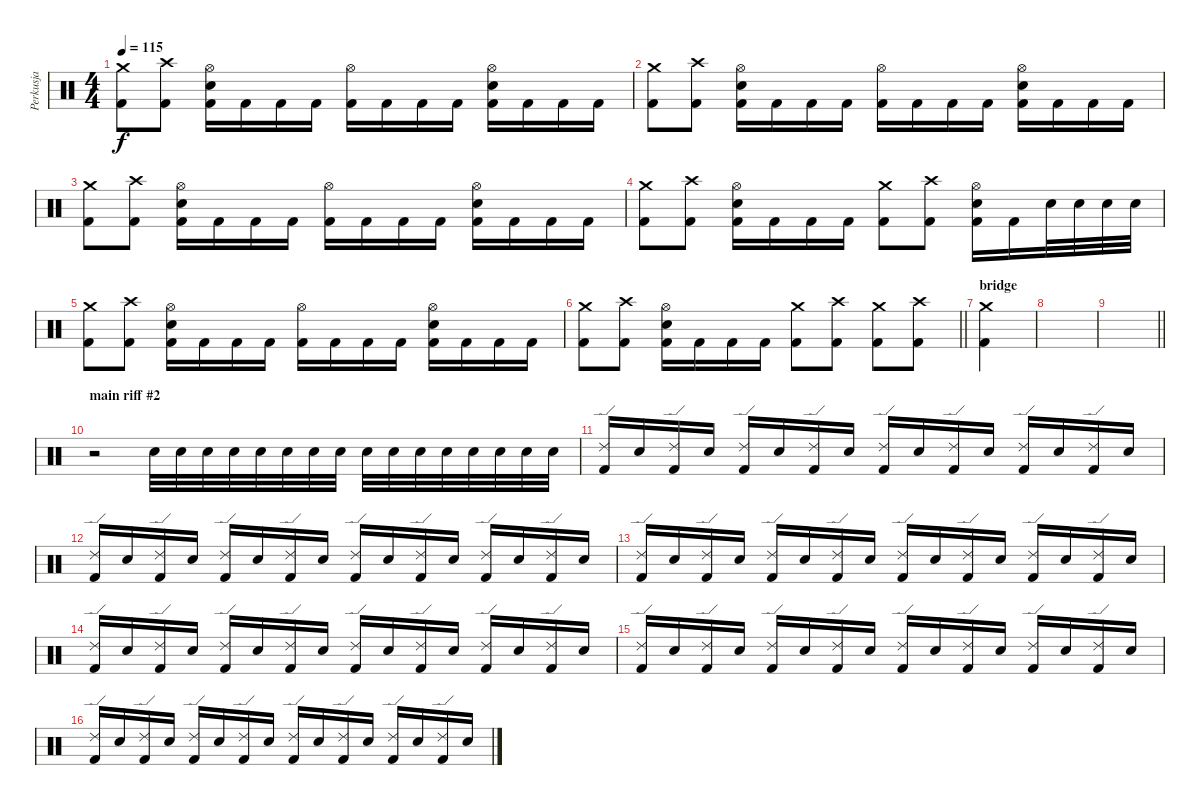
\track ("Perkusja" "Perkusja") {instrument percussion}
\staff {score}
\articulation defaults
\ts (4 4)
\tempo 115
\clef neutral
\ks c
("Crash medium (hit)" "Kick (hit) 2").8{dy f} ("Crash high (hit)" "Kick (hit) 2").8 ("Kick (hit) 2" "Snare (hit) 2" "Hi-Hat (open)").16 "Kick (hit) 2".16 "Kick (hit) 2".16 "Kick (hit) 2".16 ("Kick (hit) 2" "Hi-Hat (open)").16 "Kick (hit) 2".16 "Kick (hit) 2".16 "Kick (hit) 2".16 ("Kick (hit) 2" "Snare (hit) 2" "Hi-Hat (open)").16 "Kick (hit) 2".16 "Kick (hit) 2".16 "Kick (hit) 2".16 |
("Crash medium (hit)" "Kick (hit) 2").8 ("Crash high (hit)" "Kick (hit) 2").8 ("Kick (hit) 2" "Snare (hit) 2" "Hi-Hat (open)").16 "Kick (hit) 2".16 "Kick (hit) 2".16 "Kick (hit) 2".16 ("Kick (hit) 2" "Hi-Hat (open)").16 "Kick (hit) 2".16 "Kick (hit) 2".16 "Kick (hit) 2".16 ("Kick (hit) 2" "Snare (hit) 2" "Hi-Hat (open)").16 "Kick (hit) 2".16 "Kick (hit) 2".16 "Kick (hit) 2".16 |
("Crash medium (hit)" "Kick (hit) 2").8 ("Crash high (hit)" "Kick (hit) 2").8 ("Kick (hit) 2" "Snare (hit) 2" "Hi-Hat (open)").16 "Kick (hit) 2".16 "Kick (hit) 2".16 "Kick (hit) 2".16 ("Kick (hit) 2" "Hi-Hat (open)").16 "Kick (hit) 2".16 "Kick (hit) 2".16 "Kick (hit) 2".16 ("Kick (hit) 2" "Snare (hit) 2" "Hi-Hat (open)").16 "Kick (hit) 2".16 "Kick (hit) 2".16 "Kick (hit) 2".16 |
("Crash medium (hit)" "Kick (hit) 2").8 ("Crash high (hit)" "Kick (hit) 2").8 ("Kick (hit) 2" "Snare (hit) 2" "Hi-Hat (open)").16 "Kick (hit) 2".16 "Kick (hit) 2".16 "Kick (hit) 2".16 ("Crash medium (hit)" "Kick (hit) 2").8 ("Crash high (hit)" "Kick (hit) 2").8 ("Kick (hit) 2" "Snare (hit) 2" "Hi-Hat (open)").16 "Kick (hit) 2".16 "Snare (hit) 2".32 "Snare (hit) 2".32 "Snare (hit) 2".32 "Snare (hit) 2".32 |
("Crash medium (hit)" "Kick (hit) 2").8 ("Crash high (hit)" "Kick (hit) 2").8 ("Kick (hit) 2" "Snare (hit) 2" "Hi-Hat (open)").16 "Kick (hit) 2".16 "Kick (hit) 2".16 "Kick (hit) 2".16 ("Kick (hit) 2" "Hi-Hat (open)").16 "Kick (hit) 2".16 "Kick (hit) 2".16 "Kick (hit) 2".16 ("Kick (hit) 2" "Snare (hit) 2" "Hi-Hat (open)").16 "Kick (hit) 2".16 "Kick (hit) 2".16 "Kick (hit) 2".16 |
\barLineRight lightlight
("Crash medium (hit)" "Kick (hit) 2").8 ("Crash high (hit)" "Kick (hit) 2").8 ("Kick (hit) 2" "Snare (hit) 2" "Hi-Hat (open)").16 "Kick (hit) 2".16 "Kick (hit) 2".16 "Kick (hit) 2".16 ("Crash medium (hit)" "Kick (hit) 2").8 ("Crash high (hit)" "Kick (hit) 2").8 ("Crash medium (hit)" "Kick (hit) 2").8 ("Crash high (hit)" "Kick (hit) 2").8 |
\section ("" "bridge")
("Crash medium (hit)" "Kick (hit) 2").4 |
|
\barLineRight lightlight
|
\section ("" "main riff #2")
r.2 "Snare (hit) 2".32 "Snare (hit) 2".32 "Snare (hit) 2".32 "Snare (hit) 2".32 "Snare (hit) 2".32 "Snare (hit) 2".32 "Snare (hit) 2".32 "Snare (hit) 2".32 "Snare (hit) 2".32 "Snare (hit) 2".32 "Snare (hit) 2".32 "Snare (hit) 2".32 "Snare (hit) 2".32 "Snare (hit) 2".32 "Snare (hit) 2".32 "Snare (hit) 2".32 |
("Kick (hit) 2" "Ride (edge) 2").16 "Snare (hit) 2".16 ("Kick (hit) 2" "Ride (edge) 2").16 "Snare (hit) 2".16 ("Kick (hit) 2" "Ride (edge) 2").16 "Snare (hit) 2".16 ("Kick (hit) 2" "Ride (edge) 2").16 "Snare (hit) 2".16 ("Kick (hit) 2" "Ride (edge) 2").16 "Snare (hit) 2".16 ("Kick (hit) 2" "Ride (edge) 2").16 "Snare (hit) 2".16 ("Kick (hit) 2" "Ride (edge) 2").16 "Snare (hit) 2".16 ("Kick (hit) 2" "Ride (edge) 2").16 "Snare (hit) 2".16 |
("Kick (hit) 2" "Ride (edge) 2").16 "Snare (hit) 2".16 ("Kick (hit) 2" "Ride (edge) 2").16 "Snare (hit) 2".16 ("Kick (hit) 2" "Ride (edge) 2").16 "Snare (hit) 2".16 ("Kick (hit) 2" "Ride (edge) 2").16 "Snare (hit) 2".16 ("Kick (hit) 2" "Ride (edge) 2").16 "Snare (hit) 2".16 ("Kick (hit) 2" "Ride (edge) 2").16 "Snare (hit) 2".16 ("Kick (hit) 2" "Ride (edge) 2").16 "Snare (hit) 2".16 ("Kick (hit) 2" "Ride (edge) 2").16 "Snare (hit) 2".16 |
("Kick (hit) 2" "Ride (edge) 2").16 "Snare (hit) 2".16 ("Kick (hit) 2" "Ride (edge) 2").16 "Snare (hit) 2".16 ("Kick (hit) 2" "Ride (edge) 2").16 "Snare (hit) 2".16 ("Kick (hit) 2" "Ride (edge) 2").16 "Snare (hit) 2".16 ("Kick (hit) 2" "Ride (edge) 2").16 "Snare (hit) 2".16 ("Kick (hit) 2" "Ride (edge) 2").16 "Snare (hit) 2".16 ("Kick (hit) 2" "Ride (edge) 2").16 "Snare (hit) 2".16 ("Kick (hit) 2" "Ride (edge) 2").16 "Snare (hit) 2".16 |
("Kick (hit) 2" "Ride (edge) 2").16 "Snare (hit) 2".16 ("Kick (hit) 2" "Ride (edge) 2").16 "Snare (hit) 2".16 ("Kick (hit) 2" "Ride (edge) 2").16 "Snare (hit) 2".16 ("Kick (hit) 2" "Ride (edge) 2").16 "Snare (hit) 2".16 ("Kick (hit) 2" "Ride (edge) 2").16 "Snare (hit) 2".16 ("Kick (hit) 2" "Ride (edge) 2").16 "Snare (hit) 2".16 ("Kick (hit) 2" "Ride (edge) 2").16 "Snare (hit) 2".16 ("Kick (hit) 2" "Ride (edge) 2").16 "Snare (hit) 2".16 |
("Kick (hit) 2" "Ride (edge) 2").16 "Snare (hit) 2".16 ("Kick (hit) 2" "Ride (edge) 2").16 "Snare (hit) 2".16 ("Kick (hit) 2" "Ride (edge) 2").16 "Snare (hit) 2".16 ("Kick (hit) 2" "Ride (edge) 2").16 "Snare (hit) 2".16 ("Kick (hit) 2" "Ride (edge) 2").16 "Snare (hit) 2".16 ("Kick (hit) 2" "Ride (edge) 2").16 "Snare (hit) 2".16 ("Kick (hit) 2" "Ride (edge) 2").16 "Snare (hit) 2".16 ("Kick (hit) 2" "Ride (edge) 2").16 "Snare (hit) 2".16 |
("Kick (hit) 2" "Ride (edge) 2").16 "Snare (hit) 2".16 ("Kick (hit) 2" "Ride (edge) 2").16 "Snare (hit) 2".16 ("Kick (hit) 2" "Ride (edge) 2").16 "Snare (hit) 2".16 ("Kick (hit) 2" "Ride (edge) 2").16 "Snare (hit) 2".16 ("Kick (hit) 2" "Ride (edge) 2").16 "Snare (hit) 2".16 ("Kick (hit) 2" "Ride (edge) 2").16 "Snare (hit) 2".16 ("Kick (hit) 2" "Ride (edge) 2").16 "Snare (hit) 2".16 ("Kick (hit) 2" "Ride (edge) 2").16 "Snare (hit) 2".16
